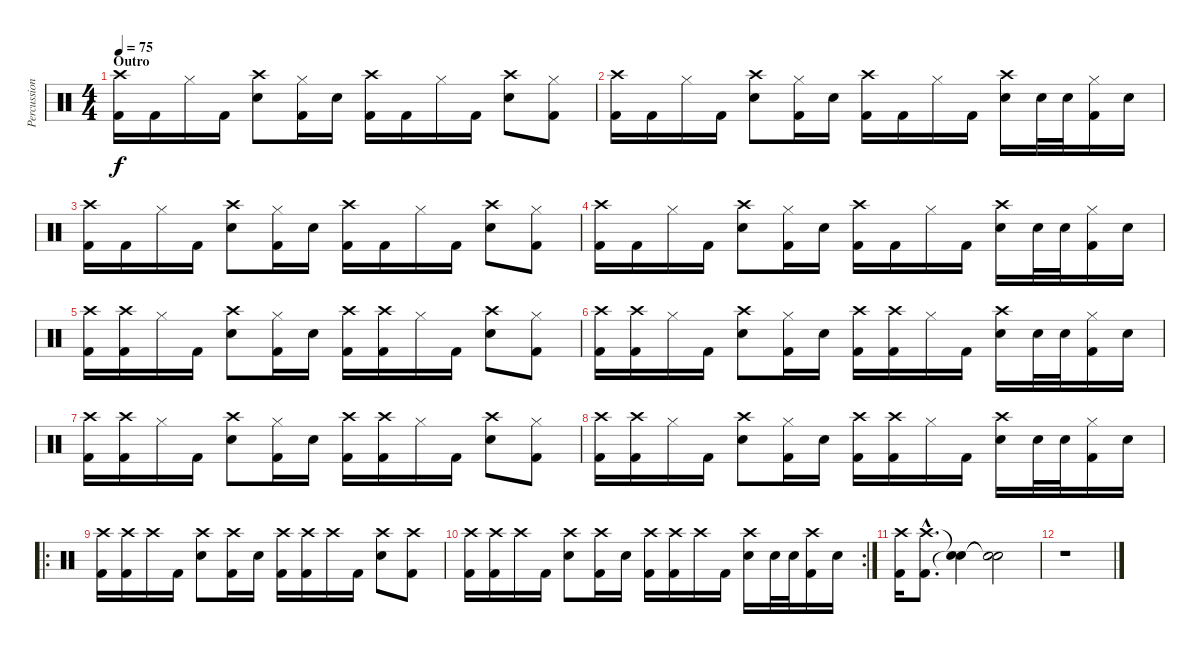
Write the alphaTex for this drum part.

\track ("Percussion" "Percussion") {instrument percussion}
\staff {score}
\articulation defaults
\ts (4 4)
\section ("" "Outro")
\tempo 75
\clef neutral
\ks c
("Crash high (hit)" "Kick (hit) 2").16{dy f} "Kick (hit) 2".16 "Hi-Hat (closed)".16 "Kick (hit) 2".16 ("Crash high (hit)" "Electric Snare (hit)").8 ("Hi-Hat (closed)" "Kick (hit) 2").16 "Electric Snare (hit)".16 ("Crash high (hit)" "Kick (hit) 2").16 "Kick (hit) 2".16 "Hi-Hat (closed)".16 "Kick (hit) 2".16 ("Crash high (hit)" "Electric Snare (hit)").8 ("Hi-Hat (closed)" "Kick (hit) 2").8 |
("Crash high (hit)" "Kick (hit) 2").16 "Kick (hit) 2".16 "Hi-Hat (closed)".16 "Kick (hit) 2".16 ("Crash high (hit)" "Electric Snare (hit)").8 ("Hi-Hat (closed)" "Kick (hit) 2").16 "Electric Snare (hit)".16 ("Crash high (hit)" "Kick (hit) 2").16 "Kick (hit) 2".16 "Hi-Hat (closed)".16 "Kick (hit) 2".16 ("Crash high (hit)" "Electric Snare (hit)").16 "Electric Snare (hit)".32 "Electric Snare (hit)".32 ("Hi-Hat (closed)" "Kick (hit) 2").16 "Electric Snare (hit)".16 |
("Crash high (hit)" "Kick (hit) 2").16 "Kick (hit) 2".16 "Hi-Hat (closed)".16 "Kick (hit) 2".16 ("Crash high (hit)" "Electric Snare (hit)").8 ("Hi-Hat (closed)" "Kick (hit) 2").16 "Electric Snare (hit)".16 ("Crash high (hit)" "Kick (hit) 2").16 "Kick (hit) 2".16 "Hi-Hat (closed)".16 "Kick (hit) 2".16 ("Crash high (hit)" "Electric Snare (hit)").8 ("Hi-Hat (closed)" "Kick (hit) 2").8 |
("Crash high (hit)" "Kick (hit) 2").16 "Kick (hit) 2".16 "Hi-Hat (closed)".16 "Kick (hit) 2".16 ("Crash high (hit)" "Electric Snare (hit)").8 ("Hi-Hat (closed)" "Kick (hit) 2").16 "Electric Snare (hit)".16 ("Crash high (hit)" "Kick (hit) 2").16 "Kick (hit) 2".16 "Hi-Hat (closed)".16 "Kick (hit) 2".16 ("Crash high (hit)" "Electric Snare (hit)").16 "Electric Snare (hit)".32 "Electric Snare (hit)".32 ("Hi-Hat (closed)" "Kick (hit) 2").16 "Electric Snare (hit)".16 |
("Crash high (hit)" "Kick (hit) 2").16 ("Crash high (hit)" "Kick (hit) 2").16 "Hi-Hat (closed)".16 "Kick (hit) 2".16 ("Crash high (hit)" "Electric Snare (hit)").8 ("Hi-Hat (closed)" "Kick (hit) 2").16 "Electric Snare (hit)".16 ("Crash high (hit)" "Kick (hit) 2").16 ("Crash high (hit)" "Kick (hit) 2").16 "Hi-Hat (closed)".16 "Kick (hit) 2".16 ("Crash high (hit)" "Electric Snare (hit)").8 ("Hi-Hat (closed)" "Kick (hit) 2").8 |
("Crash high (hit)" "Kick (hit) 2").16 ("Crash high (hit)" "Kick (hit) 2").16 "Hi-Hat (closed)".16 "Kick (hit) 2".16 ("Crash high (hit)" "Electric Snare (hit)").8 ("Hi-Hat (closed)" "Kick (hit) 2").16 "Electric Snare (hit)".16 ("Crash high (hit)" "Kick (hit) 2").16 ("Crash high (hit)" "Kick (hit) 2").16 "Hi-Hat (closed)".16 "Kick (hit) 2".16 ("Crash high (hit)" "Electric Snare (hit)").16 "Electric Snare (hit)".32 "Electric Snare (hit)".32 ("Hi-Hat (closed)" "Kick (hit) 2").16 "Electric Snare (hit)".16 |
("Crash high (hit)" "Kick (hit) 2").16 ("Crash high (hit)" "Kick (hit) 2").16 "Hi-Hat (closed)".16 "Kick (hit) 2".16 ("Crash high (hit)" "Electric Snare (hit)").8 ("Hi-Hat (closed)" "Kick (hit) 2").16 "Electric Snare (hit)".16 ("Crash high (hit)" "Kick (hit) 2").16 ("Crash high (hit)" "Kick (hit) 2").16 "Hi-Hat (closed)".16 "Kick (hit) 2".16 ("Crash high (hit)" "Electric Snare (hit)").8 ("Hi-Hat (closed)" "Kick (hit) 2").8 |
("Crash high (hit)" "Kick (hit) 2").16 ("Crash high (hit)" "Kick (hit) 2").16 "Hi-Hat (closed)".16 "Kick (hit) 2".16 ("Crash high (hit)" "Electric Snare (hit)").8 ("Hi-Hat (closed)" "Kick (hit) 2").16 "Electric Snare (hit)".16 ("Crash high (hit)" "Kick (hit) 2").16 ("Crash high (hit)" "Kick (hit) 2").16 "Hi-Hat (closed)".16 "Kick (hit) 2".16 ("Crash high (hit)" "Electric Snare (hit)").16 "Electric Snare (hit)".32 "Electric Snare (hit)".32 ("Hi-Hat (closed)" "Kick (hit) 2").16 "Electric Snare (hit)".16 |
\ro
("Crash high (hit)" "Kick (hit) 2").16 ("Crash high (hit)" "Kick (hit) 2").16 "Crash high (hit)".16 "Kick (hit) 2".16 ("Crash high (hit)" "Electric Snare (hit)").8 ("Crash high (hit)" "Kick (hit) 2").16 "Electric Snare (hit)".16 ("Crash high (hit)" "Kick (hit) 2").16 ("Crash high (hit)" "Kick (hit) 2").16 "Crash high (hit)".16 "Kick (hit) 2".16 ("Crash high (hit)" "Electric Snare (hit)").8 ("Crash high (hit)" "Kick (hit) 2").8 |
\rc 2
("Crash high (hit)" "Kick (hit) 2").16 ("Crash high (hit)" "Kick (hit) 2").16 "Crash high (hit)".16 "Kick (hit) 2".16 ("Crash high (hit)" "Electric Snare (hit)").8 ("Crash high (hit)" "Kick (hit) 2").16 "Electric Snare (hit)".16 ("Crash high (hit)" "Kick (hit) 2").16 ("Crash high (hit)" "Kick (hit) 2").16 "Crash high (hit)".16 "Kick (hit) 2".16 ("Crash high (hit)" "Electric Snare (hit)").16 "Electric Snare (hit)".32 "Electric Snare (hit)".32 ("Crash high (hit)" "Kick (hit) 2").16 "Electric Snare (hit)".16 |
("Crash high (hit)" "Kick (hit) 2").16 ("Crash high (hit)"{hac} "Kick (hit) 2"{hac}).8{d} ("Snare (hit)"{t} "Snare (hit)"{t}).4 ("Snare (hit)"{t} "Snare (hit)"{t}).2 |
r.1
